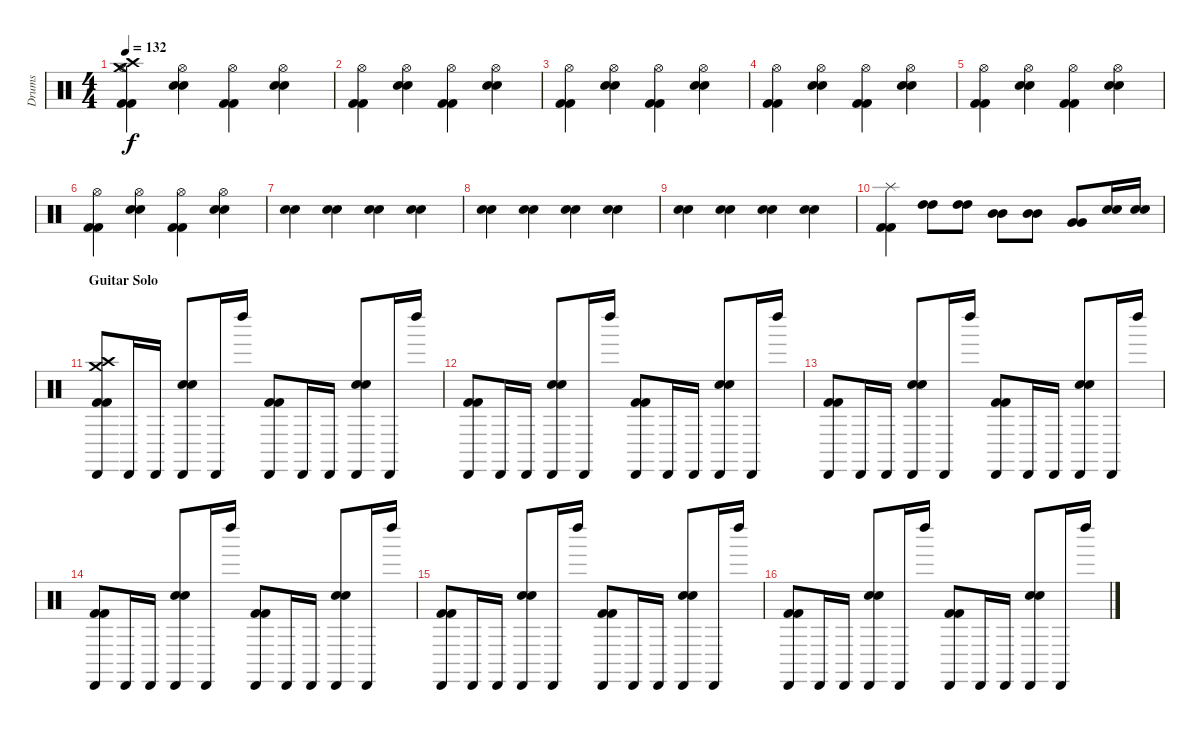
\track ("Drums" "Drums") {instrument percussion}
\staff {score}
\articulation defaults
\ts (4 4)
\tempo 132
\clef neutral
\ks c
("Kick (hit) 2" "Kick (hit) 2" "Hi-Hat (open)" "Crash medium (hit)" "Crash high (hit)").4{dy f} ("Snare (hit) 2" "Snare (hit) 2" "Hi-Hat (open)").4 ("Kick (hit) 2" "Kick (hit) 2" "Hi-Hat (open)").4 ("Snare (hit) 2" "Snare (hit) 2" "Hi-Hat (open)").4 |
("Kick (hit) 2" "Kick (hit) 2" "Hi-Hat (open)").4 ("Snare (hit) 2" "Snare (hit) 2" "Hi-Hat (open)").4 ("Kick (hit) 2" "Kick (hit) 2" "Hi-Hat (open)").4 ("Snare (hit) 2" "Snare (hit) 2" "Hi-Hat (open)").4 |
("Kick (hit) 2" "Kick (hit) 2" "Hi-Hat (open)").4 ("Snare (hit) 2" "Snare (hit) 2" "Hi-Hat (open)").4 ("Kick (hit) 2" "Kick (hit) 2" "Hi-Hat (open)").4 ("Snare (hit) 2" "Snare (hit) 2" "Hi-Hat (open)").4 |
("Kick (hit) 2" "Kick (hit) 2" "Hi-Hat (open)").4 ("Snare (hit) 2" "Snare (hit) 2" "Hi-Hat (open)").4 ("Kick (hit) 2" "Kick (hit) 2" "Hi-Hat (open)").4 ("Snare (hit) 2" "Snare (hit) 2" "Hi-Hat (open)").4 |
("Kick (hit) 2" "Kick (hit) 2" "Hi-Hat (open)").4 ("Snare (hit) 2" "Snare (hit) 2" "Hi-Hat (open)").4 ("Kick (hit) 2" "Kick (hit) 2" "Hi-Hat (open)").4 ("Snare (hit) 2" "Snare (hit) 2" "Hi-Hat (open)").4 |
("Kick (hit) 2" "Kick (hit) 2" "Hi-Hat (open)").4 ("Snare (hit) 2" "Snare (hit) 2" "Hi-Hat (open)").4 ("Kick (hit) 2" "Kick (hit) 2" "Hi-Hat (open)").4 ("Snare (hit) 2" "Snare (hit) 2" "Hi-Hat (open)").4 |
("Snare (hit) 2" "Electric Snare (hit)").4 ("Snare (hit) 2" "Electric Snare (hit)").4 ("Snare (hit) 2" "Electric Snare (hit)").4 ("Snare (hit) 2" "Electric Snare (hit)").4 |
("Snare (hit) 2" "Electric Snare (hit)").4 ("Snare (hit) 2" "Electric Snare (hit)").4 ("Snare (hit) 2" "Electric Snare (hit)").4 ("Snare (hit) 2" "Electric Snare (hit)").4 |
("Snare (hit) 2" "Electric Snare (hit)").4 ("Snare (hit) 2" "Electric Snare (hit)").4 ("Snare (hit) 2" "Electric Snare (hit)").4 ("Snare (hit) 2" "Electric Snare (hit)").4 |
("Kick (hit) 2" "Kick (hit) 2" "Splash (hit)").4 ("High Tom (hit)" "High Tom (hit)").8 ("High Tom (hit)" "High Tom (hit)").8 ("Mid Tom (hit)" "Mid Tom (hit)").8 ("Mid Tom (hit)" "Mid Tom (hit)").8 ("Very Low Tom (hit)" "Very Low Tom (hit)").8 ("Snare (hit) 2" "Snare (hit) 2").16 ("Snare (hit) 2" "Snare (hit) 2").16 |
\section ("" "Guitar Solo")
("Kick (hit) 2" "Kick (hit) 2" "Cabasa (hit)" "Crash medium (hit)" "Crash high (hit)").8 "Cabasa (hit)".16 "Cabasa (hit)".16 ("Electric Snare (hit)" "Electric Snare (hit)" "Cabasa (hit)").8 "Cabasa (hit)".16 "Left Maraca (hit)".16 ("Kick (hit) 2" "Kick (hit) 2" "Cabasa (hit)").8 "Cabasa (hit)".16 "Cabasa (hit)".16 ("Electric Snare (hit)" "Electric Snare (hit)" "Cabasa (hit)").8 "Cabasa (hit)".16 "Left Maraca (hit)".16 |
("Kick (hit) 2" "Kick (hit) 2" "Cabasa (hit)").8 "Cabasa (hit)".16 "Cabasa (hit)".16 ("Electric Snare (hit)" "Electric Snare (hit)" "Cabasa (hit)").8 "Cabasa (hit)".16 "Left Maraca (hit)".16 ("Kick (hit) 2" "Kick (hit) 2" "Cabasa (hit)").8 "Cabasa (hit)".16 "Cabasa (hit)".16 ("Electric Snare (hit)" "Electric Snare (hit)" "Cabasa (hit)").8 "Cabasa (hit)".16 "Left Maraca (hit)".16 |
("Kick (hit) 2" "Kick (hit) 2" "Cabasa (hit)").8 "Cabasa (hit)".16 "Cabasa (hit)".16 ("Electric Snare (hit)" "Electric Snare (hit)" "Cabasa (hit)").8 "Cabasa (hit)".16 "Left Maraca (hit)".16 ("Kick (hit) 2" "Kick (hit) 2" "Cabasa (hit)").8 "Cabasa (hit)".16 "Cabasa (hit)".16 ("Electric Snare (hit)" "Electric Snare (hit)" "Cabasa (hit)").8 "Cabasa (hit)".16 "Left Maraca (hit)".16 |
("Kick (hit) 2" "Kick (hit) 2" "Cabasa (hit)").8 "Cabasa (hit)".16 "Cabasa (hit)".16 ("Electric Snare (hit)" "Electric Snare (hit)" "Cabasa (hit)").8 "Cabasa (hit)".16 "Left Maraca (hit)".16 ("Kick (hit) 2" "Kick (hit) 2" "Cabasa (hit)").8 "Cabasa (hit)".16 "Cabasa (hit)".16 ("Electric Snare (hit)" "Electric Snare (hit)" "Cabasa (hit)").8 "Cabasa (hit)".16 "Left Maraca (hit)".16 |
("Kick (hit) 2" "Kick (hit) 2" "Cabasa (hit)").8 "Cabasa (hit)".16 "Cabasa (hit)".16 ("Electric Snare (hit)" "Electric Snare (hit)" "Cabasa (hit)").8 "Cabasa (hit)".16 "Left Maraca (hit)".16 ("Kick (hit) 2" "Kick (hit) 2" "Cabasa (hit)").8 "Cabasa (hit)".16 "Cabasa (hit)".16 ("Electric Snare (hit)" "Electric Snare (hit)" "Cabasa (hit)").8 "Cabasa (hit)".16 "Left Maraca (hit)".16 |
("Kick (hit) 2" "Kick (hit) 2" "Cabasa (hit)").8 "Cabasa (hit)".16 "Cabasa (hit)".16 ("Electric Snare (hit)" "Electric Snare (hit)" "Cabasa (hit)").8 "Cabasa (hit)".16 "Left Maraca (hit)".16 ("Kick (hit) 2" "Kick (hit) 2" "Cabasa (hit)").8 "Cabasa (hit)".16 "Cabasa (hit)".16 ("Electric Snare (hit)" "Electric Snare (hit)" "Cabasa (hit)").8 "Cabasa (hit)".16 "Left Maraca (hit)".16
